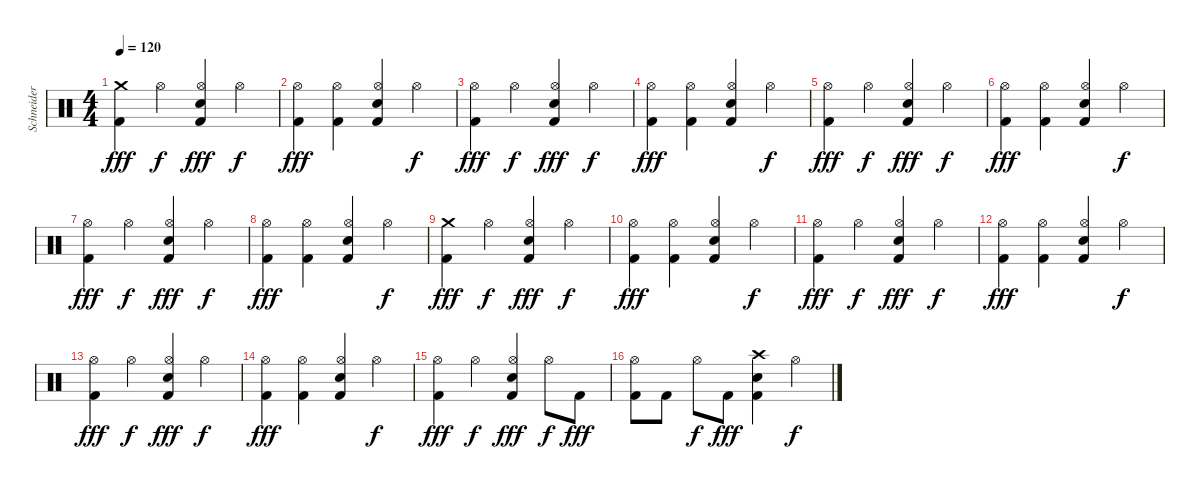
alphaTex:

\track ("Schneider" "Schneider") {instrument percussion}
\staff {score}
\articulation defaults
\ts (4 4)
\tempo 120
\clef neutral
\ks c
("Crash medium (hit)" "Kick (hit) 2").4{dy fff} "Hi-Hat (open)".4{dy f} ("Hi-Hat (open)" "Kick (hit) 2" "Snare (hit) 2").4{dy fff} "Hi-Hat (open)".4{dy f} |
("Hi-Hat (open)" "Kick (hit) 2").4{dy fff} ("Hi-Hat (open)" "Kick (hit) 2").4 ("Hi-Hat (open)" "Kick (hit) 2" "Snare (hit) 2").4 "Hi-Hat (open)".4{dy f} |
("Hi-Hat (open)" "Kick (hit) 2").4{dy fff} "Hi-Hat (open)".4{dy f} ("Hi-Hat (open)" "Kick (hit) 2" "Snare (hit) 2").4{dy fff} "Hi-Hat (open)".4{dy f} |
("Hi-Hat (open)" "Kick (hit) 2").4{dy fff} ("Hi-Hat (open)" "Kick (hit) 2").4 ("Hi-Hat (open)" "Kick (hit) 2" "Snare (hit) 2").4 "Hi-Hat (open)".4{dy f} |
("Hi-Hat (open)" "Kick (hit) 2").4{dy fff} "Hi-Hat (open)".4{dy f} ("Hi-Hat (open)" "Kick (hit) 2" "Snare (hit) 2").4{dy fff} "Hi-Hat (open)".4{dy f} |
("Hi-Hat (open)" "Kick (hit) 2").4{dy fff} ("Hi-Hat (open)" "Kick (hit) 2").4 ("Hi-Hat (open)" "Kick (hit) 2" "Snare (hit) 2").4 "Hi-Hat (open)".4{dy f} |
("Hi-Hat (open)" "Kick (hit) 2").4{dy fff} "Hi-Hat (open)".4{dy f} ("Hi-Hat (open)" "Kick (hit) 2" "Snare (hit) 2").4{dy fff} "Hi-Hat (open)".4{dy f} |
("Hi-Hat (open)" "Kick (hit) 2").4{dy fff} ("Hi-Hat (open)" "Kick (hit) 2").4 ("Hi-Hat (open)" "Kick (hit) 2" "Snare (hit) 2").4 "Hi-Hat (open)".4{dy f} |
("Crash medium (hit)" "Kick (hit) 2").4{dy fff} "Hi-Hat (open)".4{dy f} ("Hi-Hat (open)" "Kick (hit) 2" "Snare (hit) 2").4{dy fff} "Hi-Hat (open)".4{dy f} |
("Hi-Hat (open)" "Kick (hit) 2").4{dy fff} ("Hi-Hat (open)" "Kick (hit) 2").4 ("Hi-Hat (open)" "Kick (hit) 2" "Snare (hit) 2").4 "Hi-Hat (open)".4{dy f} |
("Hi-Hat (open)" "Kick (hit) 2").4{dy fff} "Hi-Hat (open)".4{dy f} ("Hi-Hat (open)" "Kick (hit) 2" "Snare (hit) 2").4{dy fff} "Hi-Hat (open)".4{dy f} |
("Hi-Hat (open)" "Kick (hit) 2").4{dy fff} ("Hi-Hat (open)" "Kick (hit) 2").4 ("Hi-Hat (open)" "Kick (hit) 2" "Snare (hit) 2").4 "Hi-Hat (open)".4{dy f} |
("Hi-Hat (open)" "Kick (hit) 2").4{dy fff} "Hi-Hat (open)".4{dy f} ("Hi-Hat (open)" "Kick (hit) 2" "Snare (hit) 2").4{dy fff} "Hi-Hat (open)".4{dy f} |
("Hi-Hat (open)" "Kick (hit) 2").4{dy fff} ("Hi-Hat (open)" "Kick (hit) 2").4 ("Hi-Hat (open)" "Kick (hit) 2" "Snare (hit) 2").4 "Hi-Hat (open)".4{dy f} |
("Hi-Hat (open)" "Kick (hit) 2").4{dy fff} "Hi-Hat (open)".4{dy f} ("Hi-Hat (open)" "Kick (hit) 2" "Snare (hit) 2").4{dy fff} "Hi-Hat (open)".8{dy f} "Kick (hit) 2".8{dy fff} |
("Hi-Hat (open)" "Kick (hit) 2").8 "Kick (hit) 2".8 "Hi-Hat (open)".8{dy f} "Kick (hit) 2".8{dy fff} ("Crash high (hit)" "Kick (hit) 2" "Snare (hit) 2").4 "Hi-Hat (open)".4{dy f}
